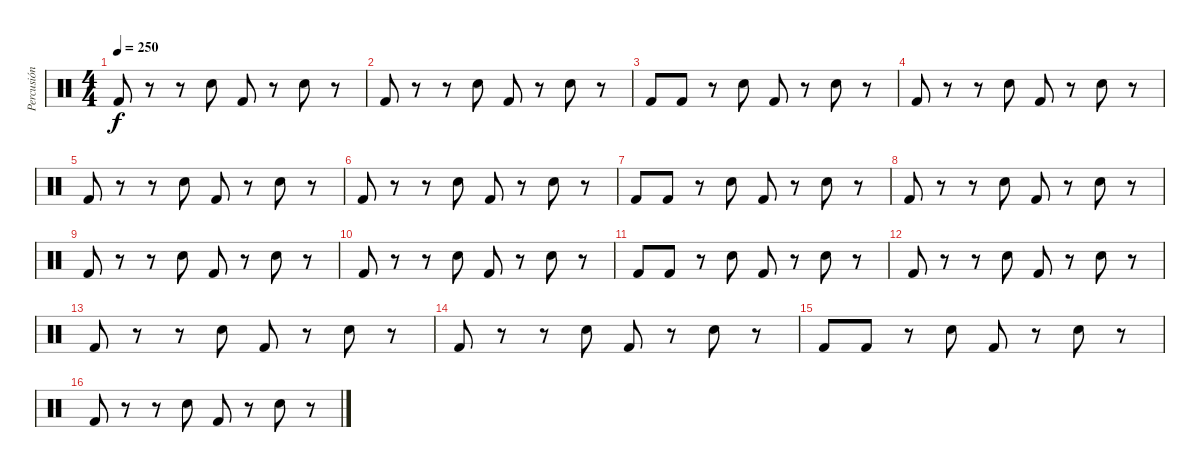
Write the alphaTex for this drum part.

\track ("Percusión" "Percusión") {instrument percussion}
\staff {score}
\articulation defaults
\ts (4 4)
\tempo 250
\clef neutral
\ks c "Kick (hit) 2".8{dy f}
r.8 r.8 "Electric Snare (hit)".8 "Kick (hit) 2".8 r.8 "Electric Snare (hit)".8 r.8 |
"Kick (hit) 2".8 r.8 r.8 "Electric Snare (hit)".8 "Kick (hit) 2".8 r.8 "Electric Snare (hit)".8 r.8 |
"Kick (hit) 2".8 "Kick (hit) 2".8 r.8 "Electric Snare (hit)".8 "Kick (hit) 2".8 r.8 "Electric Snare (hit)".8 r.8 |
"Kick (hit) 2".8 r.8 r.8 "Electric Snare (hit)".8 "Kick (hit) 2".8 r.8 "Electric Snare (hit)".8 r.8 |
"Kick (hit) 2".8 r.8 r.8 "Electric Snare (hit)".8 "Kick (hit) 2".8 r.8 "Electric Snare (hit)".8 r.8 |
"Kick (hit) 2".8 r.8 r.8 "Electric Snare (hit)".8 "Kick (hit) 2".8 r.8 "Electric Snare (hit)".8 r.8 |
"Kick (hit) 2".8 "Kick (hit) 2".8 r.8 "Electric Snare (hit)".8 "Kick (hit) 2".8 r.8 "Electric Snare (hit)".8 r.8 |
"Kick (hit) 2".8 r.8 r.8 "Electric Snare (hit)".8 "Kick (hit) 2".8 r.8 "Electric Snare (hit)".8 r.8 |
"Kick (hit) 2".8 r.8 r.8 "Electric Snare (hit)".8 "Kick (hit) 2".8 r.8 "Electric Snare (hit)".8 r.8 |
"Kick (hit) 2".8 r.8 r.8 "Electric Snare (hit)".8 "Kick (hit) 2".8 r.8 "Electric Snare (hit)".8 r.8 |
"Kick (hit) 2".8 "Kick (hit) 2".8 r.8 "Electric Snare (hit)".8 "Kick (hit) 2".8 r.8 "Electric Snare (hit)".8 r.8 |
"Kick (hit) 2".8 r.8 r.8 "Electric Snare (hit)".8 "Kick (hit) 2".8 r.8 "Electric Snare (hit)".8 r.8 |
"Kick (hit) 2".8 r.8 r.8 "Electric Snare (hit)".8 "Kick (hit) 2".8 r.8 "Electric Snare (hit)".8 r.8 |
"Kick (hit) 2".8 r.8 r.8 "Electric Snare (hit)".8 "Kick (hit) 2".8 r.8 "Electric Snare (hit)".8 r.8 |
"Kick (hit) 2".8 "Kick (hit) 2".8 r.8 "Electric Snare (hit)".8 "Kick (hit) 2".8 r.8 "Electric Snare (hit)".8 r.8 |
"Kick (hit) 2".8 r.8 r.8 "Electric Snare (hit)".8 "Kick (hit) 2".8 r.8 "Electric Snare (hit)".8 r.8
